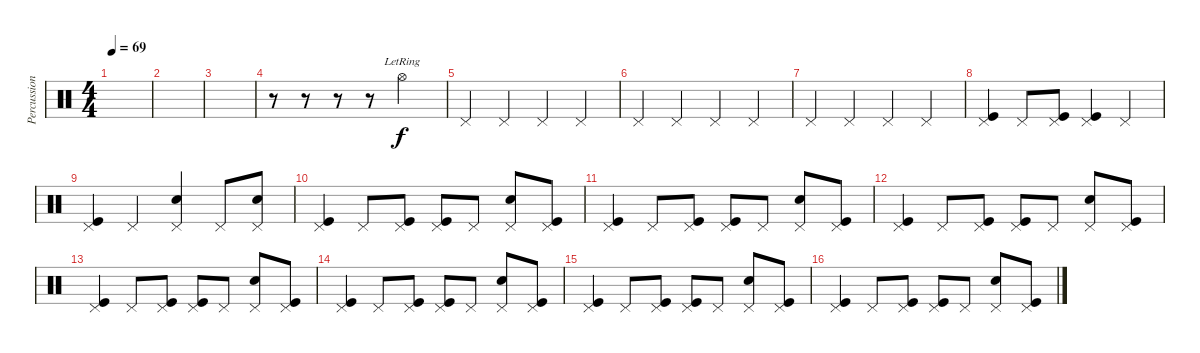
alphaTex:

\track ("Percussion" "Percussion") {instrument percussion}
\staff {score}
\articulation defaults
\ts (4 4)
\tempo 69
\clef neutral
\ks c
|
|
|
r.8 r.8 r.8 r.8{volume 16} "Hi-Hat (open)"{lr}.2 |
"Pedal Hi-Hat (hit)".4 "Pedal Hi-Hat (hit)".4 "Pedal Hi-Hat (hit)".4 "Pedal Hi-Hat (hit)".4 |
"Pedal Hi-Hat (hit)".4 "Pedal Hi-Hat (hit)".4 "Pedal Hi-Hat (hit)".4 "Pedal Hi-Hat (hit)".4 |
"Pedal Hi-Hat (hit)".4 "Pedal Hi-Hat (hit)".4 "Pedal Hi-Hat (hit)".4 "Pedal Hi-Hat (hit)".4 |
("Pedal Hi-Hat (hit)" "Kick (hit)").4 "Pedal Hi-Hat (hit)".8 ("Pedal Hi-Hat (hit)" "Kick (hit)").8 ("Pedal Hi-Hat (hit)" "Kick (hit)").4 "Pedal Hi-Hat (hit)".4 |
("Pedal Hi-Hat (hit)" "Kick (hit)").4 "Pedal Hi-Hat (hit)".4 ("Pedal Hi-Hat (hit)" "Snare (hit) 2").4 "Pedal Hi-Hat (hit)".8 ("Pedal Hi-Hat (hit)" "Snare (hit) 2").8 |
("Pedal Hi-Hat (hit)" "Kick (hit)").4 "Pedal Hi-Hat (hit)".8 ("Pedal Hi-Hat (hit)" "Kick (hit)").8 ("Pedal Hi-Hat (hit)" "Kick (hit)").8 "Pedal Hi-Hat (hit)".8 ("Pedal Hi-Hat (hit)" "Snare (hit) 2").8 ("Pedal Hi-Hat (hit)" "Kick (hit)").8 |
("Pedal Hi-Hat (hit)" "Kick (hit)").4 "Pedal Hi-Hat (hit)".8 ("Pedal Hi-Hat (hit)" "Kick (hit)").8 ("Pedal Hi-Hat (hit)" "Kick (hit)").8 "Pedal Hi-Hat (hit)".8 ("Pedal Hi-Hat (hit)" "Snare (hit) 2").8 ("Pedal Hi-Hat (hit)" "Kick (hit)").8 |
("Pedal Hi-Hat (hit)" "Kick (hit)").4 "Pedal Hi-Hat (hit)".8 ("Pedal Hi-Hat (hit)" "Kick (hit)").8 ("Pedal Hi-Hat (hit)" "Kick (hit)").8 "Pedal Hi-Hat (hit)".8 ("Pedal Hi-Hat (hit)" "Snare (hit) 2").8 ("Pedal Hi-Hat (hit)" "Kick (hit)").8 |
("Pedal Hi-Hat (hit)" "Kick (hit)").4 "Pedal Hi-Hat (hit)".8 ("Pedal Hi-Hat (hit)" "Kick (hit)").8 ("Pedal Hi-Hat (hit)" "Kick (hit)").8 "Pedal Hi-Hat (hit)".8 ("Pedal Hi-Hat (hit)" "Snare (hit) 2").8 ("Pedal Hi-Hat (hit)" "Kick (hit)").8 |
("Pedal Hi-Hat (hit)" "Kick (hit)").4 "Pedal Hi-Hat (hit)".8 ("Pedal Hi-Hat (hit)" "Kick (hit)").8 ("Pedal Hi-Hat (hit)" "Kick (hit)").8 "Pedal Hi-Hat (hit)".8 ("Pedal Hi-Hat (hit)" "Snare (hit) 2").8 ("Pedal Hi-Hat (hit)" "Kick (hit)").8 |
("Pedal Hi-Hat (hit)" "Kick (hit)").4 "Pedal Hi-Hat (hit)".8 ("Pedal Hi-Hat (hit)" "Kick (hit)").8 ("Pedal Hi-Hat (hit)" "Kick (hit)").8 "Pedal Hi-Hat (hit)".8 ("Pedal Hi-Hat (hit)" "Snare (hit) 2").8 ("Pedal Hi-Hat (hit)" "Kick (hit)").8 |
("Pedal Hi-Hat (hit)" "Kick (hit)").4 "Pedal Hi-Hat (hit)".8 ("Pedal Hi-Hat (hit)" "Kick (hit)").8 ("Pedal Hi-Hat (hit)" "Kick (hit)").8 "Pedal Hi-Hat (hit)".8 ("Pedal Hi-Hat (hit)" "Snare (hit) 2").8 ("Pedal Hi-Hat (hit)" "Kick (hit)").8
